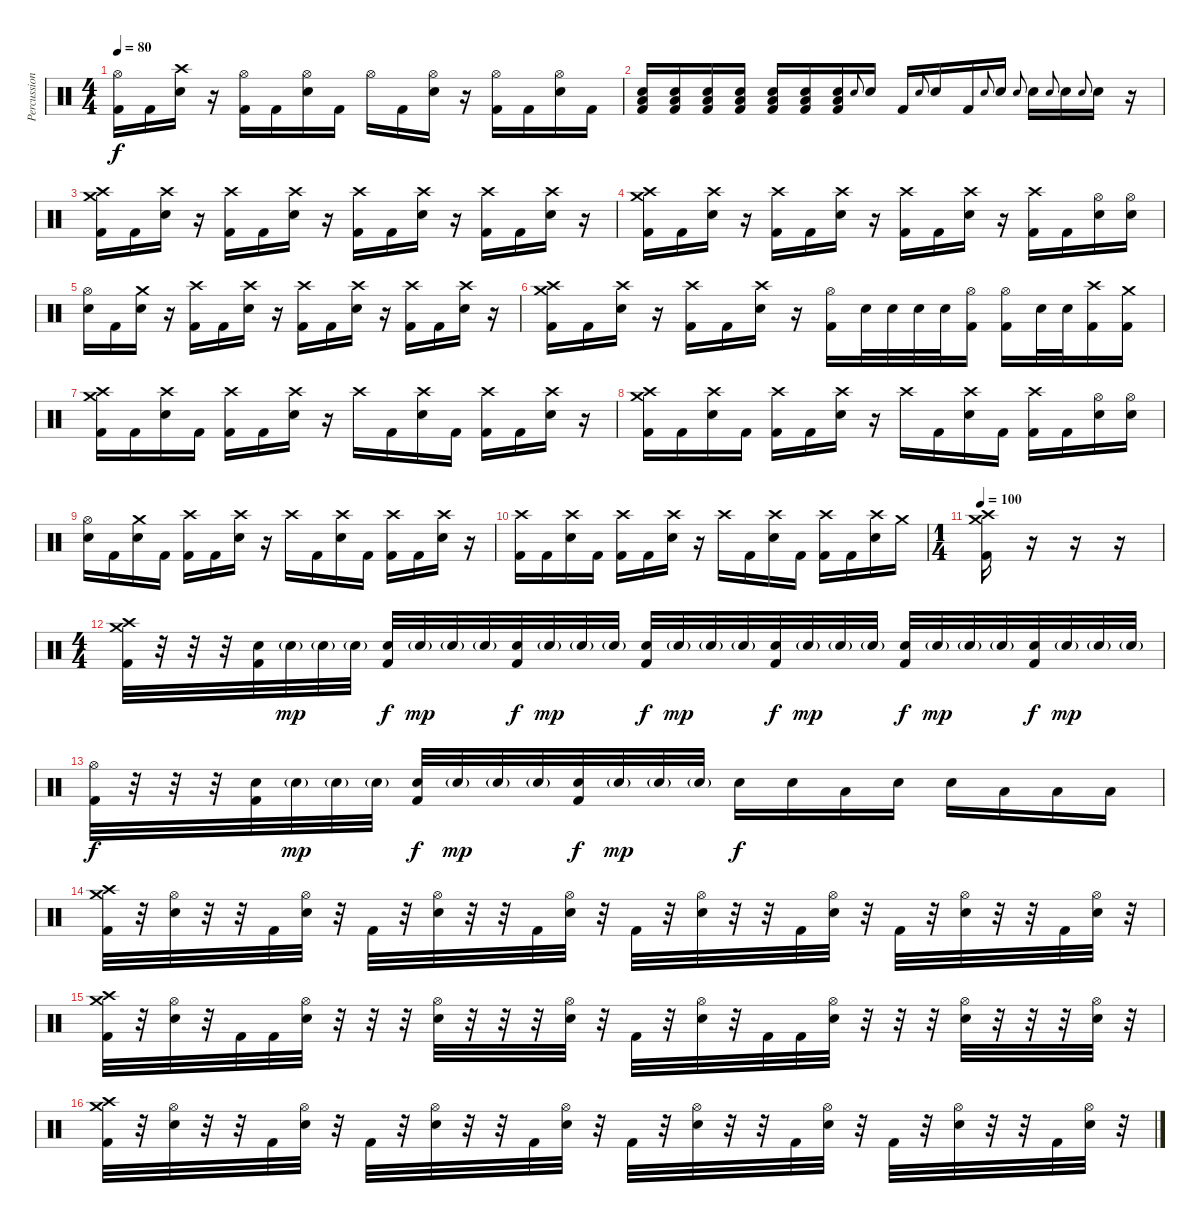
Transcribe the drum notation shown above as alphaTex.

\track ("Percussion" "Percussion") {instrument percussion}
\staff {score}
\articulation defaults
\ts (4 4)
\tempo 80
\clef neutral
\ks c
("Hi-Hat (open)" "Kick (hit) 2").16{dy f} "Kick (hit) 2".16 ("Crash high (hit)" "Electric Snare (hit)").16 r.16 ("Hi-Hat (open)" "Kick (hit) 2").16 "Kick (hit) 2".16 ("Hi-Hat (open)" "Electric Snare (hit)").16 "Kick (hit) 2".16 "Hi-Hat (open)".16 "Kick (hit) 2".16 ("Hi-Hat (open)" "Electric Snare (hit)").16 r.16 ("Hi-Hat (open)" "Kick (hit) 2").16 "Kick (hit) 2".16 ("Hi-Hat (open)" "Electric Snare (hit)").16 "Kick (hit) 2".16 |
("Electric Snare (hit)" "Low Floor Tom (hit)" "Kick (hit) 2").16 ("Electric Snare (hit)" "Low Floor Tom (hit)" "Kick (hit) 2").16 ("Electric Snare (hit)" "Low Floor Tom (hit)" "Kick (hit) 2").16 ("Electric Snare (hit)" "Low Floor Tom (hit)" "Kick (hit) 2").16 ("Electric Snare (hit)" "Low Floor Tom (hit)" "Kick (hit) 2").16 ("Electric Snare (hit)" "Low Floor Tom (hit)" "Kick (hit) 2").16 ("Electric Snare (hit)" "Low Floor Tom (hit)" "Kick (hit) 2").16 "Electric Snare (hit)".8{gr onbeat} "Electric Snare (hit)".16 "Kick (hit) 2".16 "Electric Snare (hit)".8{gr onbeat} "Electric Snare (hit)".16 "Kick (hit) 2".16 "Electric Snare (hit)".8{gr onbeat} "Electric Snare (hit)".16 "Electric Snare (hit)".8{gr onbeat} "Electric Snare (hit)".16 "Electric Snare (hit)".8{gr onbeat} "Electric Snare (hit)".16 "Electric Snare (hit)".8{gr onbeat} "Electric Snare (hit)".16 r.16 |
("Crash medium (hit)" "Crash high (hit)" "Kick (hit) 2").16 "Kick (hit) 2".16 ("Crash high (hit)" "Electric Snare (hit)").16 r.16 ("Crash high (hit)" "Kick (hit) 2").16 "Kick (hit) 2".16 ("Crash high (hit)" "Electric Snare (hit)").16 r.16 ("Crash high (hit)" "Kick (hit) 2").16 "Kick (hit) 2".16 ("Crash high (hit)" "Electric Snare (hit)").16 r.16 ("Crash high (hit)" "Kick (hit) 2").16 "Kick (hit) 2".16 ("Crash high (hit)" "Electric Snare (hit)").16 r.16 |
("Crash medium (hit)" "Crash high (hit)" "Kick (hit) 2").16 "Kick (hit) 2".16 ("Crash high (hit)" "Electric Snare (hit)").16 r.16 ("Crash high (hit)" "Kick (hit) 2").16 "Kick (hit) 2".16 ("Crash high (hit)" "Electric Snare (hit)").16 r.16 ("Crash high (hit)" "Kick (hit) 2").16 "Kick (hit) 2".16 ("Crash high (hit)" "Electric Snare (hit)").16 r.16 ("Crash high (hit)" "Kick (hit) 2").16 "Kick (hit) 2".16 ("Hi-Hat (open)" "Electric Snare (hit)").16 ("Hi-Hat (open)" "Electric Snare (hit)").16 |
("Hi-Hat (open)" "Electric Snare (hit)").16 "Kick (hit) 2".16 ("Crash medium (hit)" "Electric Snare (hit)").16 r.16 ("Crash high (hit)" "Kick (hit) 2").16 "Kick (hit) 2".16 ("Crash high (hit)" "Electric Snare (hit)").16 r.16 ("Crash high (hit)" "Kick (hit) 2").16 "Kick (hit) 2".16 ("Crash high (hit)" "Electric Snare (hit)").16 r.16 ("Crash high (hit)" "Kick (hit) 2").16 "Kick (hit) 2".16 ("Crash high (hit)" "Electric Snare (hit)").16 r.16 |
("Crash medium (hit)" "Crash high (hit)" "Kick (hit) 2").16 "Kick (hit) 2".16 ("Crash high (hit)" "Electric Snare (hit)").16 r.16 ("Crash high (hit)" "Kick (hit) 2").16 "Kick (hit) 2".16 ("Crash high (hit)" "Electric Snare (hit)").16 r.16 ("Hi-Hat (open)" "Kick (hit) 2").16 "Electric Snare (hit)".32 "Electric Snare (hit)".32 "Electric Snare (hit)".32 "Electric Snare (hit)".32 ("Hi-Hat (open)" "Kick (hit) 2").16 ("Hi-Hat (open)" "Kick (hit) 2").16 "Electric Snare (hit)".32 "Electric Snare (hit)".32 ("Crash high (hit)" "Kick (hit) 2").16 ("Crash medium (hit)" "Kick (hit) 2").16 |
("Crash medium (hit)" "Crash high (hit)" "Kick (hit) 2").16 "Kick (hit) 2".16 ("Crash high (hit)" "Electric Snare (hit)").16 "Kick (hit) 2".16 ("Crash high (hit)" "Kick (hit) 2").16 "Kick (hit) 2".16 ("Crash high (hit)" "Electric Snare (hit)").16 r.16 "Crash high (hit)".16 "Kick (hit) 2".16 ("Crash high (hit)" "Electric Snare (hit)").16 "Kick (hit) 2".16 ("Crash high (hit)" "Kick (hit) 2").16 "Kick (hit) 2".16 ("Crash high (hit)" "Electric Snare (hit)").16 r.16 |
("Crash medium (hit)" "Crash high (hit)" "Kick (hit) 2").16 "Kick (hit) 2".16 ("Crash high (hit)" "Electric Snare (hit)").16 "Kick (hit) 2".16 ("Crash high (hit)" "Kick (hit) 2").16 "Kick (hit) 2".16 ("Crash high (hit)" "Electric Snare (hit)").16 r.16 "Crash high (hit)".16 "Kick (hit) 2".16 ("Crash high (hit)" "Electric Snare (hit)").16 "Kick (hit) 2".16 ("Crash high (hit)" "Kick (hit) 2").16 "Kick (hit) 2".16 ("Hi-Hat (open)" "Electric Snare (hit)").16 ("Hi-Hat (open)" "Electric Snare (hit)").16 |
("Hi-Hat (open)" "Electric Snare (hit)").16 "Kick (hit) 2".16 ("Crash medium (hit)" "Electric Snare (hit)").16 "Kick (hit) 2".16 ("Crash high (hit)" "Kick (hit) 2").16 "Kick (hit) 2".16 ("Crash high (hit)" "Electric Snare (hit)").16 r.16 "Crash high (hit)".16 "Kick (hit) 2".16 ("Crash high (hit)" "Electric Snare (hit)").16 "Kick (hit) 2".16 ("Crash high (hit)" "Kick (hit) 2").16 "Kick (hit) 2".16 ("Crash high (hit)" "Electric Snare (hit)").16 r.16 |
("Crash high (hit)" "Kick (hit) 2").16 "Kick (hit) 2".16 ("Crash high (hit)" "Electric Snare (hit)").16 "Kick (hit) 2".16 ("Crash high (hit)" "Kick (hit) 2").16 "Kick (hit) 2".16 ("Crash high (hit)" "Electric Snare (hit)").16 r.16 "Crash high (hit)".16 "Kick (hit) 2".16 ("Crash high (hit)" "Electric Snare (hit)").16 "Kick (hit) 2".16 ("Crash high (hit)" "Kick (hit) 2").16 "Kick (hit) 2".16 ("Crash high (hit)" "Electric Snare (hit)").16 "Crash medium (hit)".16 |
\ts (1 4)
\tempo 100
("Crash medium (hit)" "Crash high (hit)" "Kick (hit) 2").16 r.16{volume 0} r.16 r.16 |
\ts (4 4)
("Crash medium (hit)" "Crash high (hit)" "Kick (hit) 2").32{volume 13} r.32 r.32 r.32 ("Electric Snare (hit)" "Kick (hit) 2").32 "Electric Snare (hit)"{g}.32{dy mp} "Electric Snare (hit)"{g}.32 "Electric Snare (hit)"{g}.32 ("Electric Snare (hit)" "Kick (hit) 2").32{dy f} "Electric Snare (hit)"{g}.32{dy mp} "Electric Snare (hit)"{g}.32 "Electric Snare (hit)"{g}.32 ("Electric Snare (hit)" "Kick (hit) 2").32{dy f} "Electric Snare (hit)"{g}.32{dy mp} "Electric Snare (hit)"{g}.32 "Electric Snare (hit)"{g}.32 ("Electric Snare (hit)" "Kick (hit) 2").32{dy f} "Electric Snare (hit)"{g}.32{dy mp} "Electric Snare (hit)"{g}.32 "Electric Snare (hit)"{g}.32 ("Electric Snare (hit)" "Kick (hit) 2").32{dy f} "Electric Snare (hit)"{g}.32{dy mp} "Electric Snare (hit)"{g}.32 "Electric Snare (hit)"{g}.32 ("Electric Snare (hit)" "Kick (hit) 2").32{dy f} "Electric Snare (hit)"{g}.32{dy mp} "Electric Snare (hit)"{g}.32 "Electric Snare (hit)"{g}.32 ("Electric Snare (hit)" "Kick (hit) 2").32{dy f} "Electric Snare (hit)"{g}.32{dy mp} "Electric Snare (hit)"{g}.32 "Electric Snare (hit)"{g}.32 |
("Hi-Hat (open)" "Kick (hit) 2").32{dy f} r.32 r.32 r.32 ("Electric Snare (hit)" "Kick (hit) 2").32 "Electric Snare (hit)"{g}.32{dy mp} "Electric Snare (hit)"{g}.32 "Electric Snare (hit)"{g}.32 ("Electric Snare (hit)" "Kick (hit) 2").32{dy f} "Electric Snare (hit)"{g}.32{dy mp} "Electric Snare (hit)"{g}.32 "Electric Snare (hit)"{g}.32 ("Electric Snare (hit)" "Kick (hit) 2").32{dy f} "Electric Snare (hit)"{g}.32{dy mp} "Electric Snare (hit)"{g}.32 "Electric Snare (hit)"{g}.32 "Electric Snare (hit)".16{dy f} "Electric Snare (hit)".16 "Low Tom (hit)".16 "Electric Snare (hit)".16 "Electric Snare (hit)".16 "Low Tom (hit)".16 "Low Floor Tom (hit)".16 "Low Floor Tom (hit)".16 |
("Crash medium (hit)" "Crash high (hit)" "Kick (hit) 2").32 r.32 ("Hi-Hat (open)" "Electric Snare (hit)").32 r.32 r.32 "Kick (hit) 2".32 ("Hi-Hat (open)" "Electric Snare (hit)").32 r.32 "Kick (hit) 2".32 r.32 ("Hi-Hat (open)" "Electric Snare (hit)").32 r.32 r.32 "Kick (hit) 2".32 ("Hi-Hat (open)" "Electric Snare (hit)").32 r.32 "Kick (hit) 2".32 r.32 ("Hi-Hat (open)" "Electric Snare (hit)").32 r.32 r.32 "Kick (hit) 2".32 ("Hi-Hat (open)" "Electric Snare (hit)").32 r.32 "Kick (hit) 2".32 r.32 ("Hi-Hat (open)" "Electric Snare (hit)").32 r.32 r.32 "Kick (hit) 2".32 ("Hi-Hat (open)" "Electric Snare (hit)").32 r.32 |
("Crash medium (hit)" "Crash high (hit)" "Kick (hit) 2").32 r.32 ("Hi-Hat (open)" "Electric Snare (hit)").32 r.32 "Kick (hit) 2".32 "Kick (hit) 2".32 ("Hi-Hat (open)" "Electric Snare (hit)").32 r.32 r.32 r.32 ("Hi-Hat (open)" "Electric Snare (hit)").32 r.32 r.32 r.32 ("Hi-Hat (open)" "Electric Snare (hit)").32 r.32 "Kick (hit) 2".32 r.32 ("Hi-Hat (open)" "Electric Snare (hit)").32 r.32 "Kick (hit) 2".32 "Kick (hit) 2".32 ("Hi-Hat (open)" "Electric Snare (hit)").32 r.32 r.32 r.32 ("Hi-Hat (open)" "Electric Snare (hit)").32 r.32 r.32 r.32 ("Hi-Hat (open)" "Electric Snare (hit)").32 r.32 |
("Crash medium (hit)" "Crash high (hit)" "Kick (hit) 2").32 r.32 ("Hi-Hat (open)" "Electric Snare (hit)").32 r.32 r.32 "Kick (hit) 2".32 ("Hi-Hat (open)" "Electric Snare (hit)").32 r.32 "Kick (hit) 2".32 r.32 ("Hi-Hat (open)" "Electric Snare (hit)").32 r.32 r.32 "Kick (hit) 2".32 ("Hi-Hat (open)" "Electric Snare (hit)").32 r.32 "Kick (hit) 2".32 r.32 ("Hi-Hat (open)" "Electric Snare (hit)").32 r.32 r.32 "Kick (hit) 2".32 ("Hi-Hat (open)" "Electric Snare (hit)").32 r.32 "Kick (hit) 2".32 r.32 ("Hi-Hat (open)" "Electric Snare (hit)").32 r.32 r.32 "Kick (hit) 2".32 ("Hi-Hat (open)" "Electric Snare (hit)").32 r.32
